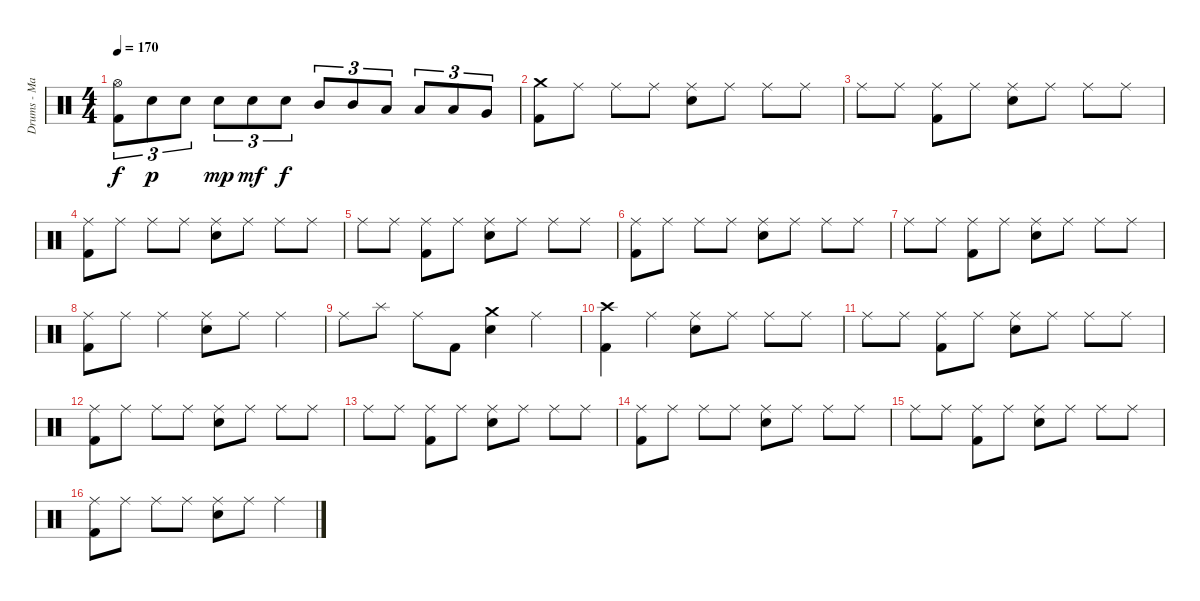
\track ("Drums - Mario Duplantier" "Drums - Ma") {instrument percussion}
\staff {score}
\articulation defaults
\ts (4 4)
\tempo 170
\clef neutral
\ks c
("Hi-Hat (open)" "Kick (hit) 2").8{tu (3 2) dy f} "Snare (hit) 2".8{tu (3 2) dy p} "Snare (hit) 2".8{tu (3 2)} "Snare (hit) 2".8{tu (3 2) dy mp} "Snare (hit) 2".8{tu (3 2) dy mf} "Snare (hit) 2".8{tu (3 2) dy f} "Mid Tom (hit)".8{tu (3 2)} "Mid Tom (hit)".8{tu (3 2)} "Low Tom (hit)".8{tu (3 2)} "Low Tom (hit)".8{tu (3 2)} "Low Tom (hit)".8{tu (3 2)} "Very Low Tom (hit)".8{tu (3 2)} |
("Crash medium (hit)" "Kick (hit) 2").8 "Ride (middle)".8 "Ride (middle)".8 "Ride (middle)".8 ("Ride (middle)" "Snare (hit) 2").8 "Ride (middle)".8 "Ride (middle)".8 "Ride (middle)".8 |
"Ride (middle)".8 "Ride (middle)".8 ("Ride (middle)" "Kick (hit) 2").8 "Ride (middle)".8 ("Ride (middle)" "Snare (hit) 2").8 "Ride (middle)".8 "Ride (middle)".8 "Ride (middle)".8 |
("Ride (middle)" "Kick (hit) 2").8 "Ride (middle)".8 "Ride (middle)".8 "Ride (middle)".8 ("Ride (middle)" "Snare (hit) 2").8 "Ride (middle)".8 "Ride (middle)".8 "Ride (middle)".8 |
"Ride (middle)".8 "Ride (middle)".8 ("Ride (middle)" "Kick (hit) 2").8 "Ride (middle)".8 ("Ride (middle)" "Snare (hit) 2").8 "Ride (middle)".8 "Ride (middle)".8 "Ride (middle)".8 |
("Ride (middle)" "Kick (hit) 2").8 "Ride (middle)".8 "Ride (middle)".8 "Ride (middle)".8 ("Ride (middle)" "Snare (hit) 2").8 "Ride (middle)".8 "Ride (middle)".8 "Ride (middle)".8 |
"Ride (middle)".8 "Ride (middle)".8 ("Ride (middle)" "Kick (hit) 2").8 "Ride (middle)".8 ("Ride (middle)" "Snare (hit) 2").8 "Ride (middle)".8 "Ride (middle)".8 "Ride (middle)".8 |
("Ride (middle)" "Kick (hit) 2").8 "Ride (middle)".8 "Ride (middle)".4 ("Ride (middle)" "Snare (hit) 2").8 "Ride (middle)".8 "Ride (middle)".4 |
"Ride (middle)".8 "Splash (hit)".8 "Ride (middle)".8 "Kick (hit) 2".8 ("Crash medium (hit)" "Snare (hit) 2").4 "Ride (middle)".4 |
("Crash high (hit)" "Kick (hit) 2").4 "Ride (middle)".4 ("Ride (middle)" "Snare (hit) 2").8 "Ride (middle)".8 "Ride (middle)".8 "Ride (middle)".8 |
"Ride (middle)".8 "Ride (middle)".8 ("Ride (middle)" "Kick (hit) 2").8 "Ride (middle)".8 ("Ride (middle)" "Snare (hit) 2").8 "Ride (middle)".8 "Ride (middle)".8 "Ride (middle)".8 |
("Ride (middle)" "Kick (hit) 2").8 "Ride (middle)".8 "Ride (middle)".8 "Ride (middle)".8 ("Ride (middle)" "Snare (hit) 2").8 "Ride (middle)".8 "Ride (middle)".8 "Ride (middle)".8 |
"Ride (middle)".8 "Ride (middle)".8 ("Ride (middle)" "Kick (hit) 2").8 "Ride (middle)".8 ("Ride (middle)" "Snare (hit) 2").8 "Ride (middle)".8 "Ride (middle)".8 "Ride (middle)".8 |
("Ride (middle)" "Kick (hit) 2").8 "Ride (middle)".8 "Ride (middle)".8 "Ride (middle)".8 ("Ride (middle)" "Snare (hit) 2").8 "Ride (middle)".8 "Ride (middle)".8 "Ride (middle)".8 |
"Ride (middle)".8 "Ride (middle)".8 ("Ride (middle)" "Kick (hit) 2").8 "Ride (middle)".8 ("Ride (middle)" "Snare (hit) 2").8 "Ride (middle)".8 "Ride (middle)".8 "Ride (middle)".8 |
("Ride (middle)" "Kick (hit) 2").8 "Ride (middle)".8 "Ride (middle)".8 "Ride (middle)".8 ("Ride (middle)" "Snare (hit) 2").8 "Ride (middle)".8 "Ride (middle)".4
